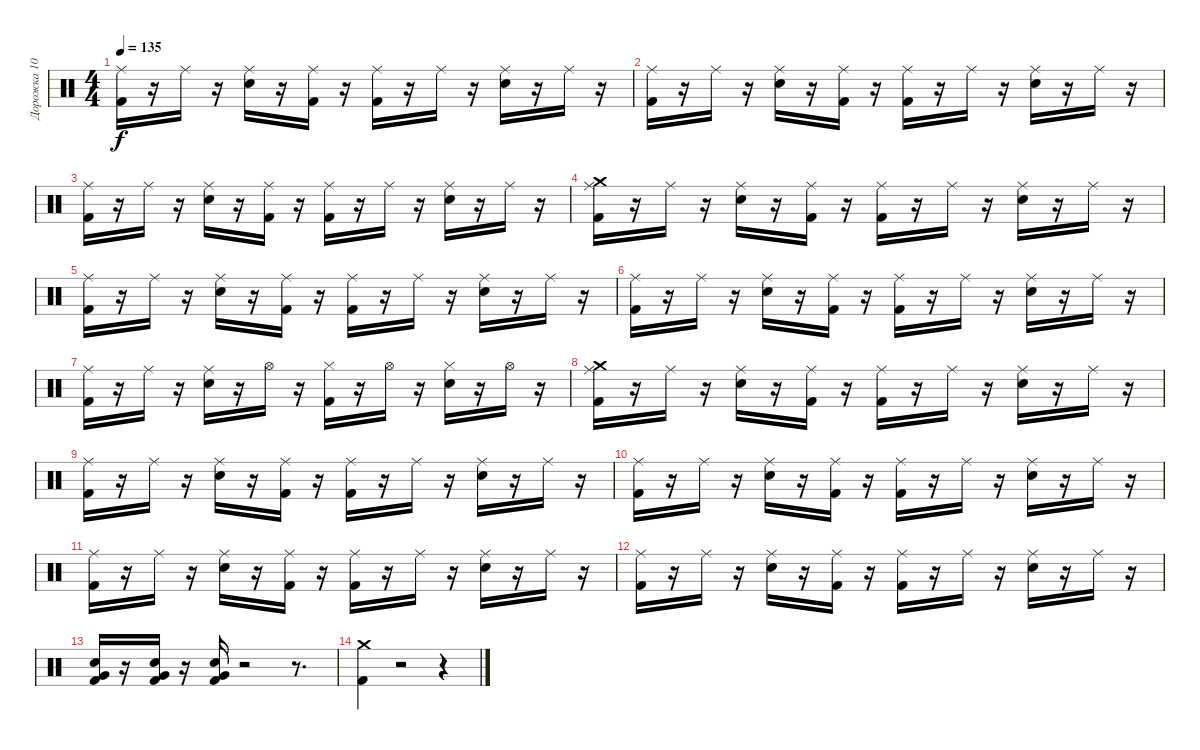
\track ("Дорожка 10" "Дорожка 10") {instrument percussion}
\staff {score}
\articulation defaults
\ts (4 4)
\tempo 135
\clef neutral
\ks c
("Ride (middle)" "Kick (hit) 2").16{dy f} r.16 "Ride (middle)".16 r.16 ("Ride (middle)" "Electric Snare (hit)").16 r.16 ("Ride (middle)" "Kick (hit) 2").16 r.16 ("Ride (middle)" "Kick (hit) 2").16 r.16 "Ride (middle)".16 r.16 ("Ride (middle)" "Electric Snare (hit)").16 r.16 "Ride (middle)".16 r.16 |
("Kick (hit) 2" "Ride (middle)").16 r.16 "Ride (middle)".16 r.16 ("Electric Snare (hit)" "Ride (middle)").16 r.16 ("Kick (hit) 2" "Ride (middle)").16 r.16 ("Kick (hit) 2" "Ride (middle)").16 r.16 "Ride (middle)".16 r.16 ("Electric Snare (hit)" "Ride (middle)").16 r.16 "Ride (middle)".16 r.16 |
("Ride (middle)" "Kick (hit) 2").16 r.16 "Ride (middle)".16 r.16 ("Ride (middle)" "Electric Snare (hit)").16 r.16 ("Ride (middle)" "Kick (hit) 2").16 r.16 ("Ride (middle)" "Kick (hit) 2").16 r.16 "Ride (middle)".16 r.16 ("Ride (middle)" "Electric Snare (hit)").16 r.16 "Ride (middle)".16 r.16 |
("Crash medium (hit)" "Kick (hit) 2" "Ride (middle)").16 r.16 "Ride (middle)".16 r.16 ("Electric Snare (hit)" "Ride (middle)").16 r.16 ("Kick (hit) 2" "Ride (middle)").16 r.16 ("Kick (hit) 2" "Ride (middle)").16 r.16 "Ride (middle)".16 r.16 ("Electric Snare (hit)" "Ride (middle)").16 r.16 "Ride (middle)".16 r.16 |
("Ride (middle)" "Kick (hit) 2").16 r.16 "Ride (middle)".16 r.16 ("Ride (middle)" "Electric Snare (hit)").16 r.16 ("Ride (middle)" "Kick (hit) 2").16 r.16 ("Ride (middle)" "Kick (hit) 2").16 r.16 "Ride (middle)".16 r.16 ("Ride (middle)" "Electric Snare (hit)").16 r.16 "Ride (middle)".16 r.16 |
("Kick (hit) 2" "Ride (middle)").16 r.16 "Ride (middle)".16 r.16 ("Electric Snare (hit)" "Ride (middle)").16 r.16 ("Kick (hit) 2" "Ride (middle)").16 r.16 ("Kick (hit) 2" "Ride (middle)").16 r.16 "Ride (middle)".16 r.16 ("Electric Snare (hit)" "Ride (middle)").16 r.16 "Ride (middle)".16 r.16 |
("Kick (hit) 2" "Ride (middle)").16 r.16 "Ride (middle)".16 r.16 ("Electric Snare (hit)" "Ride (middle)").16 r.16 "Hi-Hat (open)".16 r.16 ("Hi-Hat (closed)" "Kick (hit) 2").16 r.16 "Hi-Hat (open)".16 r.16 ("Hi-Hat (closed)" "Electric Snare (hit)").16 r.16 "Hi-Hat (open)".16 r.16 |
("Crash medium (hit)" "Kick (hit) 2" "Ride (middle)").16 r.16 "Ride (middle)".16 r.16 ("Electric Snare (hit)" "Ride (middle)").16 r.16 ("Kick (hit) 2" "Ride (middle)").16 r.16 ("Kick (hit) 2" "Ride (middle)").16 r.16 "Ride (middle)".16 r.16 ("Electric Snare (hit)" "Ride (middle)").16 r.16 "Ride (middle)".16 r.16 |
("Ride (middle)" "Kick (hit) 2").16 r.16 "Ride (middle)".16 r.16 ("Ride (middle)" "Electric Snare (hit)").16 r.16 ("Ride (middle)" "Kick (hit) 2").16 r.16 ("Ride (middle)" "Kick (hit) 2").16 r.16 "Ride (middle)".16 r.16 ("Ride (middle)" "Electric Snare (hit)").16 r.16 "Ride (middle)".16 r.16 |
("Kick (hit) 2" "Ride (middle)").16 r.16 "Ride (middle)".16 r.16 ("Electric Snare (hit)" "Ride (middle)").16 r.16 ("Kick (hit) 2" "Ride (middle)").16 r.16 ("Kick (hit) 2" "Ride (middle)").16 r.16 "Ride (middle)".16 r.16 ("Electric Snare (hit)" "Ride (middle)").16 r.16 "Ride (middle)".16 r.16 |
("Ride (middle)" "Kick (hit) 2").16 r.16 "Ride (middle)".16 r.16 ("Ride (middle)" "Electric Snare (hit)").16 r.16 ("Ride (middle)" "Kick (hit) 2").16 r.16 ("Ride (middle)" "Kick (hit) 2").16 r.16 "Ride (middle)".16 r.16 ("Ride (middle)" "Electric Snare (hit)").16 r.16 "Ride (middle)".16 r.16 |
("Kick (hit) 2" "Ride (middle)").16 r.16 "Ride (middle)".16 r.16 ("Electric Snare (hit)" "Ride (middle)").16 r.16 ("Kick (hit) 2" "Ride (middle)").16 r.16 ("Kick (hit) 2" "Ride (middle)").16 r.16 "Ride (middle)".16 r.16 ("Electric Snare (hit)" "Ride (middle)").16 r.16 "Ride (middle)".16 r.16 |
("Snare (hit) 2" "Very Low Tom (hit)" "Kick (hit) 2").16 r.16 ("Very Low Tom (hit)" "Kick (hit) 2" "Electric Snare (hit)").16 r.16 ("Kick (hit) 2" "Electric Snare (hit)" "Very Low Tom (hit)").16 r.2 r.8{d} |
("Crash medium (hit)" "Kick (hit) 2").4 r.2 r.4
